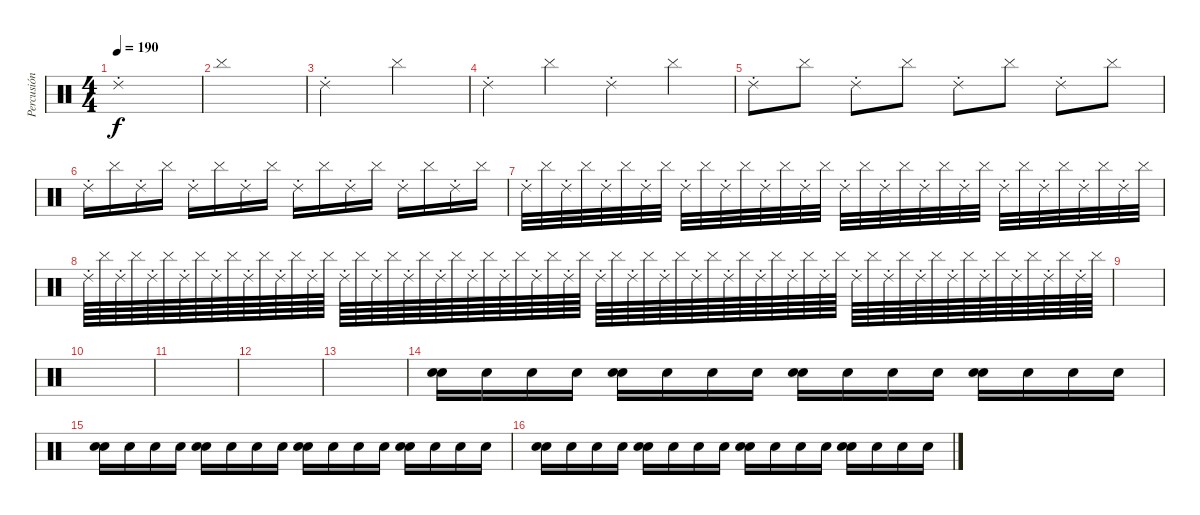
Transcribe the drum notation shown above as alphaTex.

\track ("Percusión" "Percusión") {instrument percussion}
\staff {score}
\articulation defaults
\ts (4 4)
\tempo 190
\clef neutral
\ks c "Ride (choke) 2".1{dy f}
|
"Cymbal (hit)".1 |
"Ride (choke) 2".2 "Cymbal (hit)".2 |
"Ride (choke) 2".4 "Cymbal (hit)".4 "Ride (choke) 2".4 "Cymbal (hit)".4 |
"Ride (choke) 2".8 "Cymbal (hit)".8 "Ride (choke) 2".8 "Cymbal (hit)".8 "Ride (choke) 2".8 "Cymbal (hit)".8 "Ride (choke) 2".8 "Cymbal (hit)".8 |
"Ride (choke) 2".16 "Cymbal (hit)".16 "Ride (choke) 2".16 "Cymbal (hit)".16 "Ride (choke) 2".16 "Cymbal (hit)".16 "Ride (choke) 2".16 "Cymbal (hit)".16 "Ride (choke) 2".16 "Cymbal (hit)".16 "Ride (choke) 2".16 "Cymbal (hit)".16 "Ride (choke) 2".16 "Cymbal (hit)".16 "Ride (choke) 2".16 "Cymbal (hit)".16 |
"Ride (choke) 2".32 "Cymbal (hit)".32 "Ride (choke) 2".32 "Cymbal (hit)".32 "Ride (choke) 2".32 "Cymbal (hit)".32 "Ride (choke) 2".32 "Cymbal (hit)".32 "Ride (choke) 2".32 "Cymbal (hit)".32 "Ride (choke) 2".32 "Cymbal (hit)".32 "Ride (choke) 2".32 "Cymbal (hit)".32 "Ride (choke) 2".32 "Cymbal (hit)".32 "Ride (choke) 2".32 "Cymbal (hit)".32 "Ride (choke) 2".32 "Cymbal (hit)".32 "Ride (choke) 2".32 "Cymbal (hit)".32 "Ride (choke) 2".32 "Cymbal (hit)".32 "Ride (choke) 2".32 "Cymbal (hit)".32 "Ride (choke) 2".32 "Cymbal (hit)".32 "Ride (choke) 2".32 "Cymbal (hit)".32 "Ride (choke) 2".32 "Cymbal (hit)".32 |
"Ride (choke) 2".64 "Cymbal (hit)".64 "Ride (choke) 2".64 "Cymbal (hit)".64 "Ride (choke) 2".64 "Cymbal (hit)".64 "Ride (choke) 2".64 "Cymbal (hit)".64 "Ride (choke) 2".64 "Cymbal (hit)".64 "Ride (choke) 2".64 "Cymbal (hit)".64 "Ride (choke) 2".64 "Cymbal (hit)".64 "Ride (choke) 2".64 "Cymbal (hit)".64 "Ride (choke) 2".64 "Cymbal (hit)".64 "Ride (choke) 2".64 "Cymbal (hit)".64 "Ride (choke) 2".64 "Cymbal (hit)".64 "Ride (choke) 2".64 "Cymbal (hit)".64 "Ride (choke) 2".64 "Cymbal (hit)".64 "Ride (choke) 2".64 "Cymbal (hit)".64 "Ride (choke) 2".64 "Cymbal (hit)".64 "Ride (choke) 2".64 "Cymbal (hit)".64 "Ride (choke) 2".64 "Cymbal (hit)".64 "Ride (choke) 2".64 "Cymbal (hit)".64 "Ride (choke) 2".64 "Cymbal (hit)".64 "Ride (choke) 2".64 "Cymbal (hit)".64 "Ride (choke) 2".64 "Cymbal (hit)".64 "Ride (choke) 2".64 "Cymbal (hit)".64 "Ride (choke) 2".64 "Cymbal (hit)".64 "Ride (choke) 2".64 "Cymbal (hit)".64 "Ride (choke) 2".64 "Cymbal (hit)".64 "Ride (choke) 2".64 "Cymbal (hit)".64 "Ride (choke) 2".64 "Cymbal (hit)".64 "Ride (choke) 2".64 "Cymbal (hit)".64 "Ride (choke) 2".64 "Cymbal (hit)".64 "Ride (choke) 2".64 "Cymbal (hit)".64 "Ride (choke) 2".64 "Cymbal (hit)".64 "Ride (choke) 2".64 "Cymbal (hit)".64 |
|
|
|
|
|
("Electric Snare (hit)" "Snare (hit) 2").16 "Electric Snare (hit)".16 "Electric Snare (hit)".16 "Electric Snare (hit)".16 ("Electric Snare (hit)" "Snare (hit) 2").16 "Electric Snare (hit)".16 "Electric Snare (hit)".16 "Electric Snare (hit)".16 ("Electric Snare (hit)" "Snare (hit) 2").16 "Electric Snare (hit)".16 "Electric Snare (hit)".16 "Electric Snare (hit)".16 ("Electric Snare (hit)" "Snare (hit) 2").16 "Electric Snare (hit)".16 "Electric Snare (hit)".16 "Electric Snare (hit)".16 |
("Electric Snare (hit)" "Snare (hit) 2").16 "Electric Snare (hit)".16 "Electric Snare (hit)".16 "Electric Snare (hit)".16 ("Electric Snare (hit)" "Snare (hit) 2").16 "Electric Snare (hit)".16 "Electric Snare (hit)".16 "Electric Snare (hit)".16 ("Electric Snare (hit)" "Snare (hit) 2").16 "Electric Snare (hit)".16 "Electric Snare (hit)".16 "Electric Snare (hit)".16 ("Electric Snare (hit)" "Snare (hit) 2").16 "Electric Snare (hit)".16 "Electric Snare (hit)".16 "Electric Snare (hit)".16 |
("Electric Snare (hit)" "Snare (hit) 2").16 "Electric Snare (hit)".16 "Electric Snare (hit)".16 "Electric Snare (hit)".16 ("Electric Snare (hit)" "Snare (hit) 2").16 "Electric Snare (hit)".16 "Electric Snare (hit)".16 "Electric Snare (hit)".16 ("Electric Snare (hit)" "Snare (hit) 2").16 "Electric Snare (hit)".16 "Electric Snare (hit)".16 "Electric Snare (hit)".16 ("Electric Snare (hit)" "Snare (hit) 2").16 "Electric Snare (hit)".16 "Electric Snare (hit)".16 "Electric Snare (hit)".16
